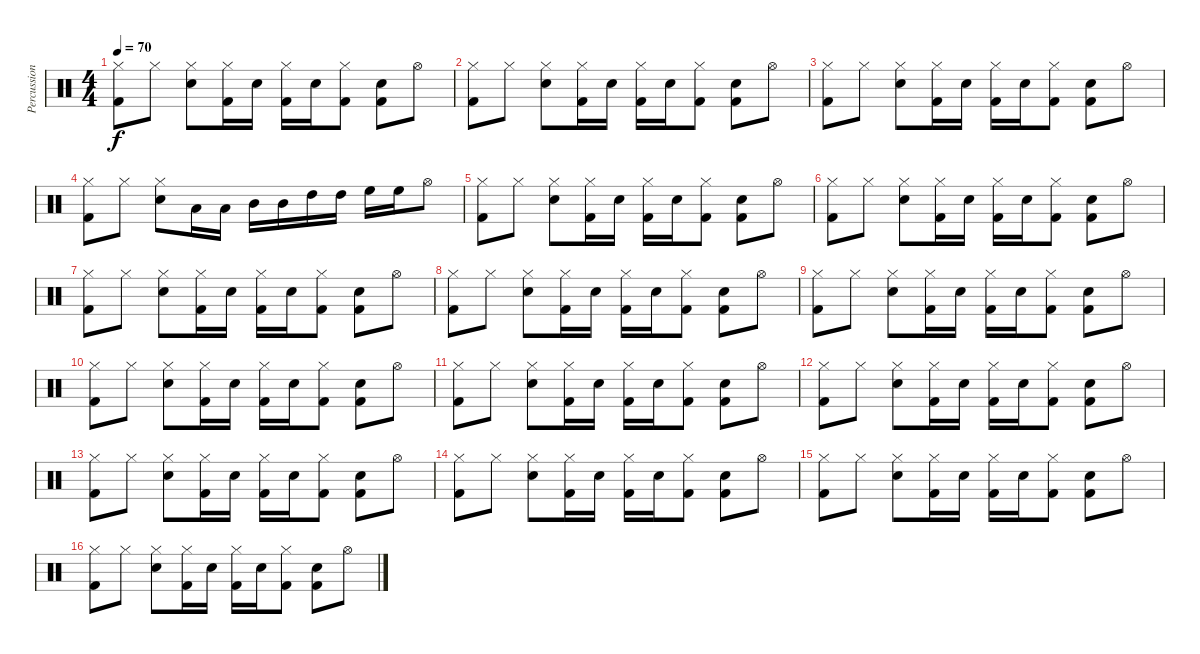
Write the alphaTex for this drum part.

\track ("Percussion" "Percussion") {instrument percussion}
\staff {score}
\articulation defaults
\ts (4 4)
\tempo 70
\clef neutral
\ks c
("Kick (hit) 2" "Hi-Hat (closed)").8{dy f} "Hi-Hat (closed)".8 ("Hi-Hat (closed)" "Snare (hit) 2").8 ("Hi-Hat (closed)" "Kick (hit) 2").16 "Snare (hit) 2".16 ("Hi-Hat (closed)" "Kick (hit) 2").16 "Snare (hit) 2".16 ("Hi-Hat (closed)" "Kick (hit) 2").8 ("Snare (hit) 2" "Kick (hit) 2").8 "Hi-Hat (open)".8 |
("Kick (hit) 2" "Hi-Hat (closed)").8 "Hi-Hat (closed)".8 ("Hi-Hat (closed)" "Snare (hit) 2").8 ("Hi-Hat (closed)" "Kick (hit) 2").16 "Snare (hit) 2".16 ("Hi-Hat (closed)" "Kick (hit) 2").16 "Snare (hit) 2".16 ("Hi-Hat (closed)" "Kick (hit) 2").8 ("Snare (hit) 2" "Kick (hit) 2").8 "Hi-Hat (open)".8 |
("Kick (hit) 2" "Hi-Hat (closed)").8 "Hi-Hat (closed)".8 ("Hi-Hat (closed)" "Snare (hit) 2").8 ("Hi-Hat (closed)" "Kick (hit) 2").16 "Snare (hit) 2".16 ("Hi-Hat (closed)" "Kick (hit) 2").16 "Snare (hit) 2".16 ("Hi-Hat (closed)" "Kick (hit) 2").8 ("Snare (hit) 2" "Kick (hit) 2").8 "Hi-Hat (open)".8 |
("Kick (hit) 2" "Hi-Hat (closed)").8 "Hi-Hat (closed)".8 ("Hi-Hat (closed)" "Snare (hit) 2").8 "Low Tom (hit)".16 "Low Tom (hit)".16 "Mid Tom (hit)".16 "Mid Tom (hit)".16 "High Tom (hit)".16 "High Tom (hit)".16 "High Floor Tom (hit)".16 "High Floor Tom (hit)".16 "Hi-Hat (open)".8 |
("Kick (hit) 2" "Hi-Hat (closed)").8 "Hi-Hat (closed)".8 ("Hi-Hat (closed)" "Snare (hit) 2").8 ("Hi-Hat (closed)" "Kick (hit) 2").16 "Snare (hit) 2".16 ("Hi-Hat (closed)" "Kick (hit) 2").16 "Snare (hit) 2".16 ("Hi-Hat (closed)" "Kick (hit) 2").8 ("Snare (hit) 2" "Kick (hit) 2").8 "Hi-Hat (open)".8 |
("Kick (hit) 2" "Hi-Hat (closed)").8 "Hi-Hat (closed)".8 ("Hi-Hat (closed)" "Snare (hit) 2").8 ("Hi-Hat (closed)" "Kick (hit) 2").16 "Snare (hit) 2".16 ("Hi-Hat (closed)" "Kick (hit) 2").16 "Snare (hit) 2".16 ("Hi-Hat (closed)" "Kick (hit) 2").8 ("Snare (hit) 2" "Kick (hit) 2").8 "Hi-Hat (open)".8 |
("Kick (hit) 2" "Hi-Hat (closed)").8 "Hi-Hat (closed)".8 ("Hi-Hat (closed)" "Snare (hit) 2").8 ("Hi-Hat (closed)" "Kick (hit) 2").16 "Snare (hit) 2".16 ("Hi-Hat (closed)" "Kick (hit) 2").16 "Snare (hit) 2".16 ("Hi-Hat (closed)" "Kick (hit) 2").8 ("Snare (hit) 2" "Kick (hit) 2").8 "Hi-Hat (open)".8 |
("Kick (hit) 2" "Hi-Hat (closed)").8 "Hi-Hat (closed)".8 ("Hi-Hat (closed)" "Snare (hit) 2").8 ("Hi-Hat (closed)" "Kick (hit) 2").16 "Snare (hit) 2".16 ("Hi-Hat (closed)" "Kick (hit) 2").16 "Snare (hit) 2".16 ("Hi-Hat (closed)" "Kick (hit) 2").8 ("Snare (hit) 2" "Kick (hit) 2").8 "Hi-Hat (open)".8 |
("Kick (hit) 2" "Hi-Hat (closed)").8 "Hi-Hat (closed)".8 ("Hi-Hat (closed)" "Snare (hit) 2").8 ("Hi-Hat (closed)" "Kick (hit) 2").16 "Snare (hit) 2".16 ("Hi-Hat (closed)" "Kick (hit) 2").16 "Snare (hit) 2".16 ("Hi-Hat (closed)" "Kick (hit) 2").8 ("Snare (hit) 2" "Kick (hit) 2").8 "Hi-Hat (open)".8 |
("Kick (hit) 2" "Hi-Hat (closed)").8 "Hi-Hat (closed)".8 ("Hi-Hat (closed)" "Snare (hit) 2").8 ("Hi-Hat (closed)" "Kick (hit) 2").16 "Snare (hit) 2".16 ("Hi-Hat (closed)" "Kick (hit) 2").16 "Snare (hit) 2".16 ("Hi-Hat (closed)" "Kick (hit) 2").8 ("Snare (hit) 2" "Kick (hit) 2").8 "Hi-Hat (open)".8 |
("Kick (hit) 2" "Hi-Hat (closed)").8 "Hi-Hat (closed)".8 ("Hi-Hat (closed)" "Snare (hit) 2").8 ("Hi-Hat (closed)" "Kick (hit) 2").16 "Snare (hit) 2".16 ("Hi-Hat (closed)" "Kick (hit) 2").16 "Snare (hit) 2".16 ("Hi-Hat (closed)" "Kick (hit) 2").8 ("Snare (hit) 2" "Kick (hit) 2").8 "Hi-Hat (open)".8 |
("Kick (hit) 2" "Hi-Hat (closed)").8 "Hi-Hat (closed)".8 ("Hi-Hat (closed)" "Snare (hit) 2").8 ("Hi-Hat (closed)" "Kick (hit) 2").16 "Snare (hit) 2".16 ("Hi-Hat (closed)" "Kick (hit) 2").16 "Snare (hit) 2".16 ("Hi-Hat (closed)" "Kick (hit) 2").8 ("Snare (hit) 2" "Kick (hit) 2").8 "Hi-Hat (open)".8 |
("Kick (hit) 2" "Hi-Hat (closed)").8 "Hi-Hat (closed)".8 ("Hi-Hat (closed)" "Snare (hit) 2").8 ("Hi-Hat (closed)" "Kick (hit) 2").16 "Snare (hit) 2".16 ("Hi-Hat (closed)" "Kick (hit) 2").16 "Snare (hit) 2".16 ("Hi-Hat (closed)" "Kick (hit) 2").8 ("Snare (hit) 2" "Kick (hit) 2").8 "Hi-Hat (open)".8 |
("Kick (hit) 2" "Hi-Hat (closed)").8 "Hi-Hat (closed)".8 ("Hi-Hat (closed)" "Snare (hit) 2").8 ("Hi-Hat (closed)" "Kick (hit) 2").16 "Snare (hit) 2".16 ("Hi-Hat (closed)" "Kick (hit) 2").16 "Snare (hit) 2".16 ("Hi-Hat (closed)" "Kick (hit) 2").8 ("Snare (hit) 2" "Kick (hit) 2").8 "Hi-Hat (open)".8 |
("Kick (hit) 2" "Hi-Hat (closed)").8 "Hi-Hat (closed)".8 ("Hi-Hat (closed)" "Snare (hit) 2").8 ("Hi-Hat (closed)" "Kick (hit) 2").16 "Snare (hit) 2".16 ("Hi-Hat (closed)" "Kick (hit) 2").16 "Snare (hit) 2".16 ("Hi-Hat (closed)" "Kick (hit) 2").8 ("Snare (hit) 2" "Kick (hit) 2").8 "Hi-Hat (open)".8 |
("Kick (hit) 2" "Hi-Hat (closed)").8 "Hi-Hat (closed)".8 ("Hi-Hat (closed)" "Snare (hit) 2").8 ("Hi-Hat (closed)" "Kick (hit) 2").16 "Snare (hit) 2".16 ("Hi-Hat (closed)" "Kick (hit) 2").16 "Snare (hit) 2".16 ("Hi-Hat (closed)" "Kick (hit) 2").8 ("Snare (hit) 2" "Kick (hit) 2").8 "Hi-Hat (open)".8
